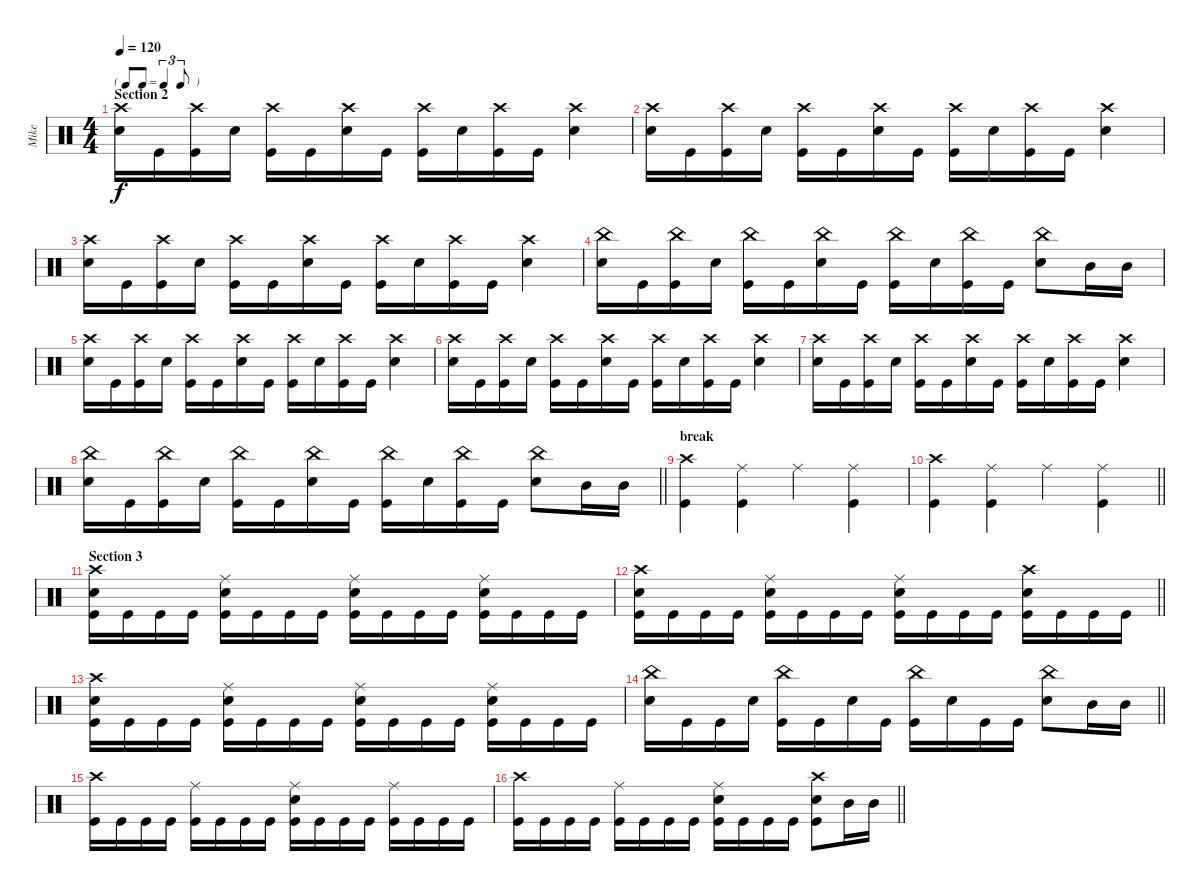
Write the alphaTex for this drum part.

\track ("Mike" "Mike") {instrument percussion}
\staff {score}
\articulation defaults
\ts (4 4)
\tf triplet8th
\section ("" "Section 2")
\tempo 120
\clef neutral
\ks c
("Crash high (hit)" "Snare (hit) 2").16{dy f} "Kick (hit)".16 ("Crash high (hit)" "Kick (hit)").16 "Snare (hit) 2".16 ("Crash high (hit)" "Kick (hit)").16 "Kick (hit)".16 ("Crash high (hit)" "Snare (hit) 2").16 "Kick (hit)".16 ("Crash high (hit)" "Kick (hit)").16 "Snare (hit) 2".16 ("Crash high (hit)" "Kick (hit)").16 "Kick (hit)".16 ("Crash high (hit)" "Snare (hit) 2").4 |
("Crash high (hit)" "Snare (hit) 2").16 "Kick (hit)".16 ("Crash high (hit)" "Kick (hit)").16 "Snare (hit) 2".16 ("Crash high (hit)" "Kick (hit)").16 "Kick (hit)".16 ("Crash high (hit)" "Snare (hit) 2").16 "Kick (hit)".16 ("Crash high (hit)" "Kick (hit)").16 "Snare (hit) 2".16 ("Crash high (hit)" "Kick (hit)").16 "Kick (hit)".16 ("Crash high (hit)" "Snare (hit) 2").4 |
("Crash high (hit)" "Snare (hit) 2").16 "Kick (hit)".16 ("Crash high (hit)" "Kick (hit)").16 "Snare (hit) 2".16 ("Crash high (hit)" "Kick (hit)").16 "Kick (hit)".16 ("Crash high (hit)" "Snare (hit) 2").16 "Kick (hit)".16 ("Crash high (hit)" "Kick (hit)").16 "Snare (hit) 2".16 ("Crash high (hit)" "Kick (hit)").16 "Kick (hit)".16 ("Crash high (hit)" "Snare (hit) 2").4 |
("China (hit)" "Snare (hit) 2").16 "Kick (hit)".16 ("China (hit)" "Kick (hit)").16 "Snare (hit) 2".16 ("China (hit)" "Kick (hit)").16 "Kick (hit)".16 ("China (hit)" "Snare (hit) 2").16 "Kick (hit)".16 ("China (hit)" "Kick (hit)").16 "Snare (hit) 2".16 ("China (hit)" "Kick (hit)").16 "Kick (hit)".16 ("China (hit)" "Snare (hit) 2").8 "Mid Tom (hit)".16 "Mid Tom (hit)".16 |
("Crash high (hit)" "Snare (hit) 2").16 "Kick (hit)".16 ("Crash high (hit)" "Kick (hit)").16 "Snare (hit) 2".16 ("Crash high (hit)" "Kick (hit)").16 "Kick (hit)".16 ("Crash high (hit)" "Snare (hit) 2").16 "Kick (hit)".16 ("Crash high (hit)" "Kick (hit)").16 "Snare (hit) 2".16 ("Crash high (hit)" "Kick (hit)").16 "Kick (hit)".16 ("Crash high (hit)" "Snare (hit) 2").4 |
("Crash high (hit)" "Snare (hit) 2").16 "Kick (hit)".16 ("Crash high (hit)" "Kick (hit)").16 "Snare (hit) 2".16 ("Crash high (hit)" "Kick (hit)").16 "Kick (hit)".16 ("Crash high (hit)" "Snare (hit) 2").16 "Kick (hit)".16 ("Crash high (hit)" "Kick (hit)").16 "Snare (hit) 2".16 ("Crash high (hit)" "Kick (hit)").16 "Kick (hit)".16 ("Crash high (hit)" "Snare (hit) 2").4 |
("Crash high (hit)" "Snare (hit) 2").16 "Kick (hit)".16 ("Crash high (hit)" "Kick (hit)").16 "Snare (hit) 2".16 ("Crash high (hit)" "Kick (hit)").16 "Kick (hit)".16 ("Crash high (hit)" "Snare (hit) 2").16 "Kick (hit)".16 ("Crash high (hit)" "Kick (hit)").16 "Snare (hit) 2".16 ("Crash high (hit)" "Kick (hit)").16 "Kick (hit)".16 ("Crash high (hit)" "Snare (hit) 2").4 |
\barLineRight lightlight
("China (hit)" "Snare (hit) 2").16 "Kick (hit)".16 ("China (hit)" "Kick (hit)").16 "Snare (hit) 2".16 ("China (hit)" "Kick (hit)").16 "Kick (hit)".16 ("China (hit)" "Snare (hit) 2").16 "Kick (hit)".16 ("China (hit)" "Kick (hit)").16 "Snare (hit) 2".16 ("China (hit)" "Kick (hit)").16 "Kick (hit)".16 ("China (hit)" "Snare (hit) 2").8 "Mid Tom (hit)".16 "Mid Tom (hit)".16 |
\section ("" "break")
("Crash high (hit)" "Kick (hit)").4 ("Ride (middle)" "Kick (hit)").4 "Ride (middle)".4 ("Ride (middle)" "Kick (hit)").4 |
\barLineRight lightlight
("Crash high (hit)" "Kick (hit)").4 ("Ride (middle)" "Kick (hit)").4 "Ride (middle)".4 ("Ride (middle)" "Kick (hit)").4 |
\section ("" "Section 3")
("Crash high (hit)" "Snare (hit) 2" "Kick (hit)").16 "Kick (hit)".16 "Kick (hit)".16 "Kick (hit)".16 ("Ride (middle)" "Snare (hit) 2" "Kick (hit)").16 "Kick (hit)".16 "Kick (hit)".16 "Kick (hit)".16 ("Ride (middle)" "Snare (hit) 2" "Kick (hit)").16 "Kick (hit)".16 "Kick (hit)".16 "Kick (hit)".16 ("Ride (middle)" "Snare (hit) 2" "Kick (hit)").16 "Kick (hit)".16 "Kick (hit)".16 "Kick (hit)".16 |
\barLineRight lightlight
("Crash high (hit)" "Snare (hit) 2" "Kick (hit)").16 "Kick (hit)".16 "Kick (hit)".16 "Kick (hit)".16 ("Ride (middle)" "Snare (hit) 2" "Kick (hit)").16 "Kick (hit)".16 "Kick (hit)".16 "Kick (hit)".16 ("Ride (middle)" "Snare (hit) 2" "Kick (hit)").16 "Kick (hit)".16 "Kick (hit)".16 "Kick (hit)".16 ("Crash high (hit)" "Snare (hit) 2" "Kick (hit)").16 "Kick (hit)".16 "Kick (hit)".16 "Kick (hit)".16 |
("Crash high (hit)" "Snare (hit) 2" "Kick (hit)").16 "Kick (hit)".16 "Kick (hit)".16 "Kick (hit)".16 ("Ride (middle)" "Snare (hit) 2" "Kick (hit)").16 "Kick (hit)".16 "Kick (hit)".16 "Kick (hit)".16 ("Ride (middle)" "Snare (hit) 2" "Kick (hit)").16 "Kick (hit)".16 "Kick (hit)".16 "Kick (hit)".16 ("Ride (middle)" "Snare (hit) 2" "Kick (hit)").16 "Kick (hit)".16 "Kick (hit)".16 "Kick (hit)".16 |
\barLineRight lightlight
("China (hit)" "Snare (hit) 2").16 "Kick (hit)".16 "Kick (hit)".16 "Snare (hit) 2".16 ("China (hit)" "Kick (hit)").16 "Kick (hit)".16 "Snare (hit) 2".16 "Kick (hit)".16 ("China (hit)" "Kick (hit)").16 "Snare (hit) 2".16 "Kick (hit)".16 "Kick (hit)".16 ("China (hit)" "Snare (hit) 2").8 "Mid Tom (hit)".16 "Mid Tom (hit)".16 |
("Crash high (hit)" "Kick (hit)").16 "Kick (hit)".16 "Kick (hit)".16 "Kick (hit)".16 ("Ride (middle)" "Kick (hit)").16 "Kick (hit)".16 "Kick (hit)".16 "Kick (hit)".16 ("Ride (middle)" "Snare (hit) 2" "Kick (hit)").16 "Kick (hit)".16 "Kick (hit)".16 "Kick (hit)".16 ("Ride (middle)" "Kick (hit)").16 "Kick (hit)".16 "Kick (hit)".16 "Kick (hit)".16 |
\barLineRight lightlight
("Crash high (hit)" "Kick (hit)").16 "Kick (hit)".16 "Kick (hit)".16 "Kick (hit)".16 ("Ride (middle)" "Kick (hit)").16 "Kick (hit)".16 "Kick (hit)".16 "Kick (hit)".16 ("Ride (middle)" "Snare (hit) 2" "Kick (hit)").16 "Kick (hit)".16 "Kick (hit)".16 "Kick (hit)".16 ("Crash high (hit)" "Snare (hit) 2" "Kick (hit)").8 "Mid Tom (hit)".16 "Mid Tom (hit)".16
